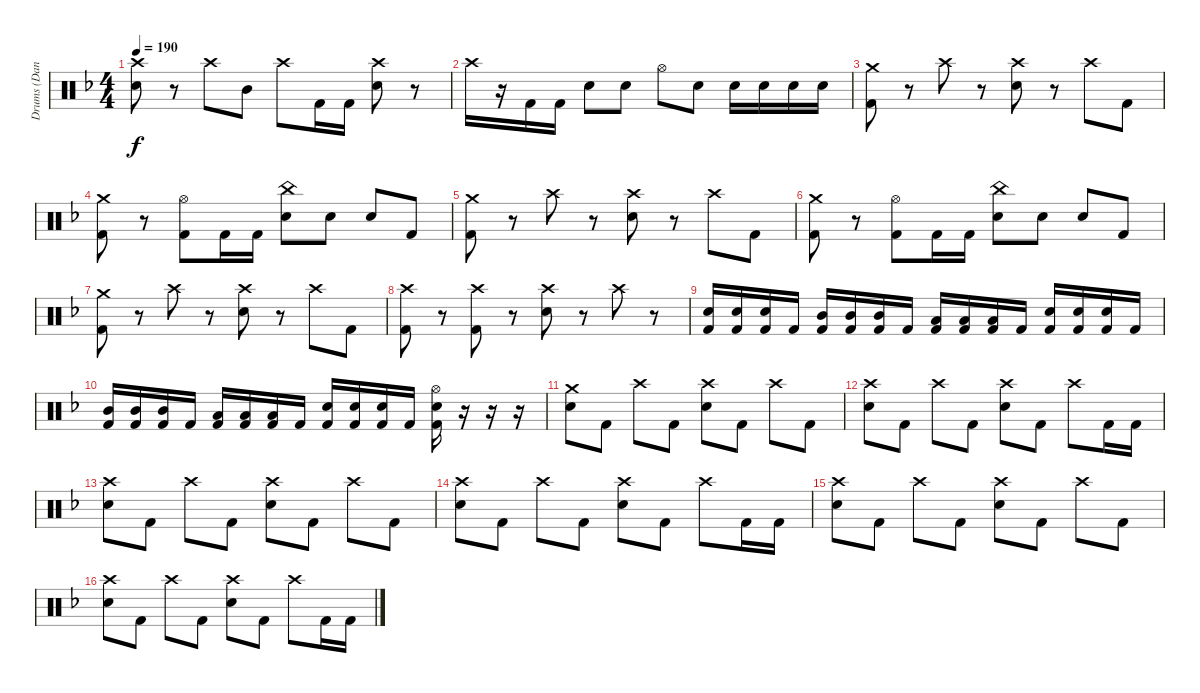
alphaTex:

\track ("Drums (Daniel)" "Drums (Dan") {instrument percussion}
\staff {score}
\articulation defaults
\ts (4 4)
\tempo 190
\clef neutral
\ks dminor
("Crash high (hit)" "Electric Snare (hit)").8{dy f} r.8 "Crash high (hit)".8 "Mid Tom (hit)".8 "Crash high (hit)".8 "Kick (hit) 2".16 "Kick (hit) 2".16 ("Crash high (hit)" "Electric Snare (hit)").8 r.8 |
"Crash high (hit)".16 r.16 "Kick (hit) 2".16 "Kick (hit) 2".16 "Electric Snare (hit)".8 "Electric Snare (hit)".8 "Hi-Hat (open)".8 "Electric Snare (hit)".8 "Electric Snare (hit)".16 "Electric Snare (hit)".16 "Electric Snare (hit)".16 "Electric Snare (hit)".16 |
("Crash medium (hit)" "Kick (hit) 2").8 r.8 "Crash high (hit)".8 r.8 ("Crash high (hit)" "Electric Snare (hit)").8 r.8 "Crash high (hit)".8 "Kick (hit) 2".8 |
("Crash medium (hit)" "Kick (hit) 2").8 r.8 ("Hi-Hat (open)" "Kick (hit) 2").8 "Kick (hit) 2".16 "Kick (hit) 2".16 ("China (hit)" "Electric Snare (hit)").8 "Electric Snare (hit)".8 "Electric Snare (hit)".8 "Kick (hit) 2".8 |
("Crash medium (hit)" "Kick (hit) 2").8 r.8 "Crash high (hit)".8 r.8 ("Crash high (hit)" "Electric Snare (hit)").8 r.8 "Crash high (hit)".8 "Kick (hit) 2".8 |
("Crash medium (hit)" "Kick (hit) 2").8 r.8 ("Hi-Hat (open)" "Kick (hit) 2").8 "Kick (hit) 2".16 "Kick (hit) 2".16 ("China (hit)" "Electric Snare (hit)").8 "Electric Snare (hit)".8 "Electric Snare (hit)".8 "Kick (hit) 2".8 |
("Crash medium (hit)" "Kick (hit) 2").8 r.8 "Crash high (hit)".8 r.8 ("Crash high (hit)" "Electric Snare (hit)").8 r.8 "Crash high (hit)".8 "Kick (hit) 2".8 |
("Crash high (hit)" "Kick (hit) 2").8 r.8 ("Crash high (hit)" "Kick (hit) 2").8 r.8 ("Crash high (hit)" "Electric Snare (hit)").8 r.8 "Crash high (hit)".8 r.8 |
("Electric Snare (hit)" "Kick (hit) 2").16 ("Electric Snare (hit)" "Kick (hit) 2").16 ("Electric Snare (hit)" "Kick (hit) 2").16 "Kick (hit) 2".16 ("Mid Tom (hit)" "Kick (hit) 2").16 ("Mid Tom (hit)" "Kick (hit) 2").16 ("Mid Tom (hit)" "Kick (hit) 2").16 "Kick (hit) 2".16 ("Low Tom (hit)" "Kick (hit) 2").16 ("Low Tom (hit)" "Kick (hit) 2").16 ("Low Tom (hit)" "Kick (hit) 2").16 "Kick (hit) 2".16 ("Electric Snare (hit)" "Kick (hit) 2").16 ("Electric Snare (hit)" "Kick (hit) 2").16 ("Electric Snare (hit)" "Kick (hit) 2").16 "Kick (hit) 2".16 |
("Mid Tom (hit)" "Kick (hit) 2").16 ("Mid Tom (hit)" "Kick (hit) 2").16 ("Mid Tom (hit)" "Kick (hit) 2").16 "Kick (hit) 2".16 ("Low Tom (hit)" "Kick (hit) 2").16 ("Low Tom (hit)" "Kick (hit) 2").16 ("Low Tom (hit)" "Kick (hit) 2").16 "Kick (hit) 2".16 ("Electric Snare (hit)" "Kick (hit) 2").16 ("Electric Snare (hit)" "Kick (hit) 2").16 ("Electric Snare (hit)" "Kick (hit) 2").16 "Kick (hit) 2".16 ("Hi-Hat (open)" "Electric Snare (hit)" "Kick (hit) 2").16 r.16 r.16 r.16 |
("Crash medium (hit)" "Electric Snare (hit)").8 "Kick (hit) 2".8 "Crash high (hit)".8 "Kick (hit) 2".8 ("Crash high (hit)" "Electric Snare (hit)").8 "Kick (hit) 2".8 "Crash high (hit)".8 "Kick (hit) 2".8 |
("Crash high (hit)" "Electric Snare (hit)").8 "Kick (hit) 2".8 "Crash high (hit)".8 "Kick (hit) 2".8 ("Crash high (hit)" "Electric Snare (hit)").8 "Kick (hit) 2".8 "Crash high (hit)".8 "Kick (hit) 2".16 "Kick (hit) 2".16 |
("Crash high (hit)" "Electric Snare (hit)").8 "Kick (hit) 2".8 "Crash high (hit)".8 "Kick (hit) 2".8 ("Crash high (hit)" "Electric Snare (hit)").8 "Kick (hit) 2".8 "Crash high (hit)".8 "Kick (hit) 2".8 |
("Crash high (hit)" "Electric Snare (hit)").8 "Kick (hit) 2".8 "Crash high (hit)".8 "Kick (hit) 2".8 ("Crash high (hit)" "Electric Snare (hit)").8 "Kick (hit) 2".8 "Crash high (hit)".8 "Kick (hit) 2".16 "Kick (hit) 2".16 |
("Crash high (hit)" "Electric Snare (hit)").8 "Kick (hit) 2".8 "Crash high (hit)".8 "Kick (hit) 2".8 ("Crash high (hit)" "Electric Snare (hit)").8 "Kick (hit) 2".8 "Crash high (hit)".8 "Kick (hit) 2".8 |
("Crash high (hit)" "Electric Snare (hit)").8 "Kick (hit) 2".8 "Crash high (hit)".8 "Kick (hit) 2".8 ("Crash high (hit)" "Electric Snare (hit)").8 "Kick (hit) 2".8 "Crash high (hit)".8 "Kick (hit) 2".16 "Kick (hit) 2".16
